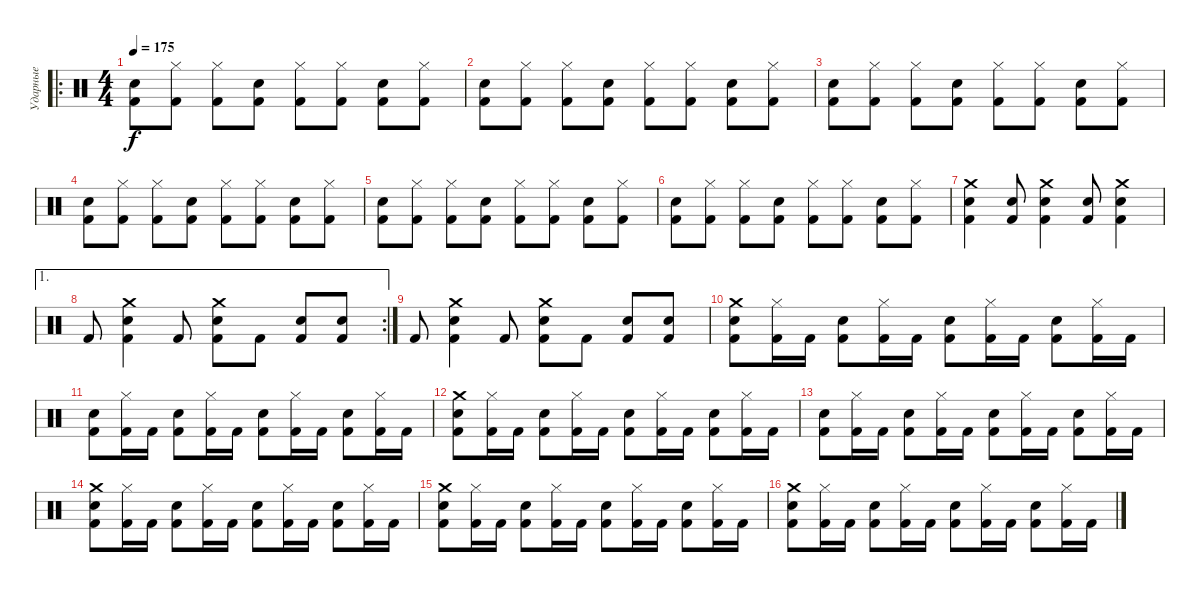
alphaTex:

\track ("Ударные" "Ударные") {instrument percussion}
\staff {score}
\articulation defaults
\ro
\ts (4 4)
\tempo 175
\clef neutral
\ks c
("Kick (hit) 2" "Snare (hit) 2").8{dy f} ("Kick (hit) 2" "Hi-Hat (closed)").8 ("Kick (hit) 2" "Hi-Hat (closed)").8 ("Kick (hit) 2" "Snare (hit) 2").8 ("Kick (hit) 2" "Hi-Hat (closed)").8 ("Kick (hit) 2" "Hi-Hat (closed)").8 ("Kick (hit) 2" "Snare (hit) 2").8 ("Kick (hit) 2" "Hi-Hat (closed)").8 |
("Kick (hit) 2" "Snare (hit) 2").8 ("Kick (hit) 2" "Hi-Hat (closed)").8 ("Kick (hit) 2" "Hi-Hat (closed)").8 ("Kick (hit) 2" "Snare (hit) 2").8 ("Kick (hit) 2" "Hi-Hat (closed)").8 ("Kick (hit) 2" "Hi-Hat (closed)").8 ("Kick (hit) 2" "Snare (hit) 2").8 ("Kick (hit) 2" "Hi-Hat (closed)").8 |
("Kick (hit) 2" "Snare (hit) 2").8 ("Kick (hit) 2" "Hi-Hat (closed)").8 ("Kick (hit) 2" "Hi-Hat (closed)").8 ("Kick (hit) 2" "Snare (hit) 2").8 ("Kick (hit) 2" "Hi-Hat (closed)").8 ("Kick (hit) 2" "Hi-Hat (closed)").8 ("Kick (hit) 2" "Snare (hit) 2").8 ("Kick (hit) 2" "Hi-Hat (closed)").8 |
("Kick (hit) 2" "Snare (hit) 2").8 ("Kick (hit) 2" "Hi-Hat (closed)").8 ("Kick (hit) 2" "Hi-Hat (closed)").8 ("Kick (hit) 2" "Snare (hit) 2").8 ("Kick (hit) 2" "Hi-Hat (closed)").8 ("Kick (hit) 2" "Hi-Hat (closed)").8 ("Kick (hit) 2" "Snare (hit) 2").8 ("Kick (hit) 2" "Hi-Hat (closed)").8 |
("Kick (hit) 2" "Snare (hit) 2").8 ("Kick (hit) 2" "Hi-Hat (closed)").8 ("Kick (hit) 2" "Hi-Hat (closed)").8 ("Kick (hit) 2" "Snare (hit) 2").8 ("Kick (hit) 2" "Hi-Hat (closed)").8 ("Kick (hit) 2" "Hi-Hat (closed)").8 ("Kick (hit) 2" "Snare (hit) 2").8 ("Kick (hit) 2" "Hi-Hat (closed)").8 |
("Kick (hit) 2" "Snare (hit) 2").8 ("Kick (hit) 2" "Hi-Hat (closed)").8 ("Kick (hit) 2" "Hi-Hat (closed)").8 ("Kick (hit) 2" "Snare (hit) 2").8 ("Kick (hit) 2" "Hi-Hat (closed)").8 ("Kick (hit) 2" "Hi-Hat (closed)").8 ("Kick (hit) 2" "Snare (hit) 2").8 ("Kick (hit) 2" "Hi-Hat (closed)").8 |
("Kick (hit) 2" "Snare (hit) 2" "Crash medium (hit)").4 ("Kick (hit) 2" "Snare (hit) 2").8 ("Kick (hit) 2" "Crash medium (hit)" "Snare (hit) 2").4 ("Kick (hit) 2" "Snare (hit) 2").8 ("Kick (hit) 2" "Snare (hit) 2" "Crash medium (hit)").4 |
\ae 1
\rc 2 "Kick (hit) 2".8
("Kick (hit) 2" "Crash medium (hit)" "Snare (hit) 2").4 "Kick (hit) 2".8 ("Kick (hit) 2" "Snare (hit) 2" "Crash medium (hit)").8 "Kick (hit) 2".8 ("Kick (hit) 2" "Snare (hit) 2").8 ("Kick (hit) 2" "Snare (hit) 2").8 |
"Kick (hit) 2".8 ("Kick (hit) 2" "Crash medium (hit)" "Snare (hit) 2").4 "Kick (hit) 2".8 ("Kick (hit) 2" "Snare (hit) 2" "Crash medium (hit)").8 "Kick (hit) 2".8 ("Kick (hit) 2" "Snare (hit) 2").8 ("Kick (hit) 2" "Snare (hit) 2").8 |
("Kick (hit) 2" "Snare (hit) 2" "Crash medium (hit)").8 ("Kick (hit) 2" "Hi-Hat (closed)").16 "Kick (hit) 2".16 ("Kick (hit) 2" "Snare (hit) 2").8 ("Kick (hit) 2" "Hi-Hat (closed)").16 "Kick (hit) 2".16 ("Kick (hit) 2" "Snare (hit) 2").8 ("Kick (hit) 2" "Hi-Hat (closed)").16 "Kick (hit) 2".16 ("Kick (hit) 2" "Snare (hit) 2").8 ("Kick (hit) 2" "Hi-Hat (closed)").16 "Kick (hit) 2".16 |
("Kick (hit) 2" "Snare (hit) 2").8 ("Kick (hit) 2" "Hi-Hat (closed)").16 "Kick (hit) 2".16 ("Kick (hit) 2" "Snare (hit) 2").8 ("Kick (hit) 2" "Hi-Hat (closed)").16 "Kick (hit) 2".16 ("Kick (hit) 2" "Snare (hit) 2").8 ("Kick (hit) 2" "Hi-Hat (closed)").16 "Kick (hit) 2".16 ("Kick (hit) 2" "Snare (hit) 2").8 ("Kick (hit) 2" "Hi-Hat (closed)").16 "Kick (hit) 2".16 |
("Kick (hit) 2" "Crash medium (hit)" "Snare (hit) 2").8 ("Kick (hit) 2" "Hi-Hat (closed)").16 "Kick (hit) 2".16 ("Kick (hit) 2" "Snare (hit) 2").8 ("Kick (hit) 2" "Hi-Hat (closed)").16 "Kick (hit) 2".16 ("Kick (hit) 2" "Snare (hit) 2").8 ("Kick (hit) 2" "Hi-Hat (closed)").16 "Kick (hit) 2".16 ("Kick (hit) 2" "Snare (hit) 2").8 ("Kick (hit) 2" "Hi-Hat (closed)").16 "Kick (hit) 2".16 |
("Kick (hit) 2" "Snare (hit) 2").8 ("Kick (hit) 2" "Hi-Hat (closed)").16 "Kick (hit) 2".16 ("Kick (hit) 2" "Snare (hit) 2").8 ("Kick (hit) 2" "Hi-Hat (closed)").16 "Kick (hit) 2".16 ("Kick (hit) 2" "Snare (hit) 2").8 ("Kick (hit) 2" "Hi-Hat (closed)").16 "Kick (hit) 2".16 ("Kick (hit) 2" "Snare (hit) 2").8 ("Kick (hit) 2" "Hi-Hat (closed)").16 "Kick (hit) 2".16 |
("Kick (hit) 2" "Crash medium (hit)" "Snare (hit) 2").8 ("Kick (hit) 2" "Hi-Hat (closed)").16 "Kick (hit) 2".16 ("Kick (hit) 2" "Snare (hit) 2").8 ("Kick (hit) 2" "Hi-Hat (closed)").16 "Kick (hit) 2".16 ("Kick (hit) 2" "Snare (hit) 2").8 ("Kick (hit) 2" "Hi-Hat (closed)").16 "Kick (hit) 2".16 ("Kick (hit) 2" "Snare (hit) 2").8 ("Kick (hit) 2" "Hi-Hat (closed)").16 "Kick (hit) 2".16 |
("Kick (hit) 2" "Snare (hit) 2" "Crash medium (hit)").8 ("Kick (hit) 2" "Hi-Hat (closed)").16 "Kick (hit) 2".16 ("Kick (hit) 2" "Snare (hit) 2").8 ("Kick (hit) 2" "Hi-Hat (closed)").16 "Kick (hit) 2".16 ("Kick (hit) 2" "Snare (hit) 2").8 ("Kick (hit) 2" "Hi-Hat (closed)").16 "Kick (hit) 2".16 ("Kick (hit) 2" "Snare (hit) 2").8 ("Kick (hit) 2" "Hi-Hat (closed)").16 "Kick (hit) 2".16 |
("Kick (hit) 2" "Snare (hit) 2" "Crash medium (hit)").8 ("Kick (hit) 2" "Hi-Hat (closed)").16 "Kick (hit) 2".16 ("Kick (hit) 2" "Snare (hit) 2").8 ("Kick (hit) 2" "Hi-Hat (closed)").16 "Kick (hit) 2".16 ("Kick (hit) 2" "Snare (hit) 2").8 ("Kick (hit) 2" "Hi-Hat (closed)").16 "Kick (hit) 2".16 ("Kick (hit) 2" "Snare (hit) 2").8 ("Kick (hit) 2" "Hi-Hat (closed)").16 "Kick (hit) 2".16
